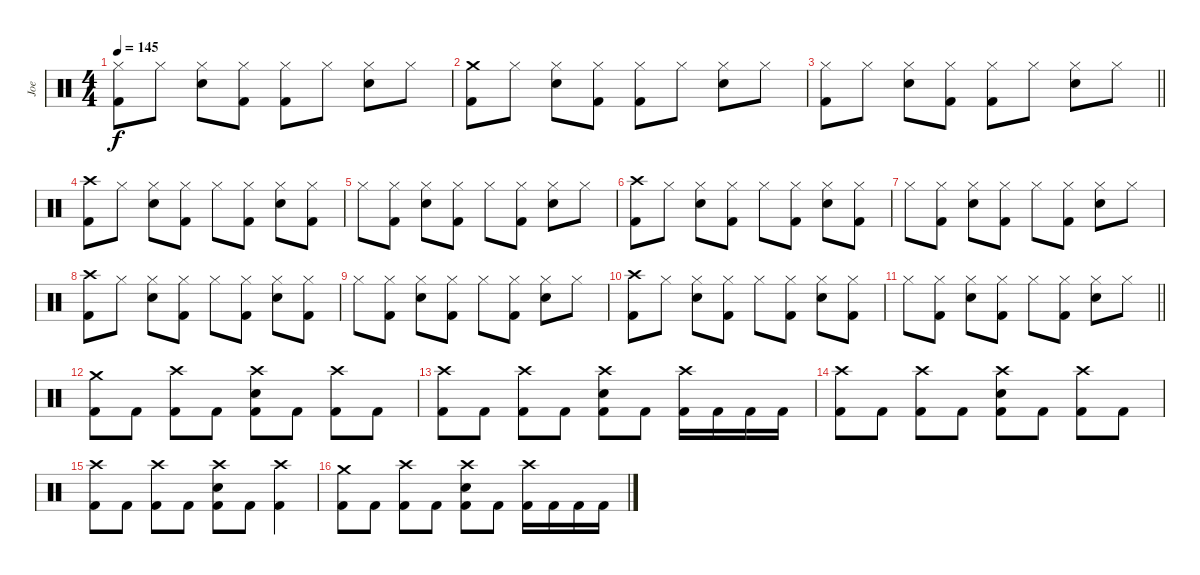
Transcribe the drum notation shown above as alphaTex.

\track ("Joe" "Joe") {instrument percussion}
\staff {score}
\articulation defaults
\ts (4 4)
\tempo 145
\clef neutral
\ks c
("Hi-Hat (closed)" "Kick (hit) 2").8{dy f} "Hi-Hat (closed)".8 ("Hi-Hat (closed)" "Snare (hit) 2").8 ("Hi-Hat (closed)" "Kick (hit) 2").8 ("Hi-Hat (closed)" "Kick (hit) 2").8 "Hi-Hat (closed)".8 ("Hi-Hat (closed)" "Snare (hit) 2").8 "Hi-Hat (closed)".8 |
("Crash medium (hit)" "Kick (hit) 2").8 "Hi-Hat (closed)".8 ("Hi-Hat (closed)" "Snare (hit) 2").8 ("Hi-Hat (closed)" "Kick (hit) 2").8 ("Hi-Hat (closed)" "Kick (hit) 2").8 "Hi-Hat (closed)".8 ("Hi-Hat (closed)" "Snare (hit) 2").8 "Hi-Hat (closed)".8 |
\barLineRight lightlight
("Hi-Hat (closed)" "Kick (hit) 2").8 "Hi-Hat (closed)".8 ("Hi-Hat (closed)" "Snare (hit) 2").8 ("Hi-Hat (closed)" "Kick (hit) 2").8 ("Hi-Hat (closed)" "Kick (hit) 2").8 "Hi-Hat (closed)".8 ("Hi-Hat (closed)" "Snare (hit) 2").8 "Hi-Hat (closed)".8 |
\section ("" "")
("Crash high (hit)" "Kick (hit) 2").8 "Hi-Hat (closed)".8 ("Hi-Hat (closed)" "Snare (hit) 2").8 ("Hi-Hat (closed)" "Kick (hit) 2").8 "Hi-Hat (closed)".8 ("Hi-Hat (closed)" "Kick (hit) 2").8 ("Hi-Hat (closed)" "Snare (hit) 2").8 ("Hi-Hat (closed)" "Kick (hit) 2").8 |
"Hi-Hat (closed)".8 ("Hi-Hat (closed)" "Kick (hit) 2").8 ("Hi-Hat (closed)" "Snare (hit) 2").8 ("Hi-Hat (closed)" "Kick (hit) 2").8 "Hi-Hat (closed)".8 ("Hi-Hat (closed)" "Kick (hit) 2").8 ("Hi-Hat (closed)" "Snare (hit) 2").8 "Hi-Hat (closed)".8 |
("Crash high (hit)" "Kick (hit) 2").8 "Hi-Hat (closed)".8 ("Hi-Hat (closed)" "Snare (hit) 2").8 ("Hi-Hat (closed)" "Kick (hit) 2").8 "Hi-Hat (closed)".8 ("Hi-Hat (closed)" "Kick (hit) 2").8 ("Hi-Hat (closed)" "Snare (hit) 2").8 ("Hi-Hat (closed)" "Kick (hit) 2").8 |
"Hi-Hat (closed)".8 ("Hi-Hat (closed)" "Kick (hit) 2").8 ("Hi-Hat (closed)" "Snare (hit) 2").8 ("Hi-Hat (closed)" "Kick (hit) 2").8 "Hi-Hat (closed)".8 ("Hi-Hat (closed)" "Kick (hit) 2").8 ("Hi-Hat (closed)" "Snare (hit) 2").8 "Hi-Hat (closed)".8 |
("Crash high (hit)" "Kick (hit) 2").8 "Hi-Hat (closed)".8 ("Hi-Hat (closed)" "Snare (hit) 2").8 ("Hi-Hat (closed)" "Kick (hit) 2").8 "Hi-Hat (closed)".8 ("Hi-Hat (closed)" "Kick (hit) 2").8 ("Hi-Hat (closed)" "Snare (hit) 2").8 ("Hi-Hat (closed)" "Kick (hit) 2").8 |
"Hi-Hat (closed)".8 ("Hi-Hat (closed)" "Kick (hit) 2").8 ("Hi-Hat (closed)" "Snare (hit) 2").8 ("Hi-Hat (closed)" "Kick (hit) 2").8 "Hi-Hat (closed)".8 ("Hi-Hat (closed)" "Kick (hit) 2").8 ("Hi-Hat (closed)" "Snare (hit) 2").8 "Hi-Hat (closed)".8 |
("Crash high (hit)" "Kick (hit) 2").8 "Hi-Hat (closed)".8 ("Hi-Hat (closed)" "Snare (hit) 2").8 ("Hi-Hat (closed)" "Kick (hit) 2").8 "Hi-Hat (closed)".8 ("Hi-Hat (closed)" "Kick (hit) 2").8 ("Hi-Hat (closed)" "Snare (hit) 2").8 ("Hi-Hat (closed)" "Kick (hit) 2").8 |
\barLineRight lightlight "Hi-Hat (closed)".8
("Hi-Hat (closed)" "Kick (hit) 2").8 ("Hi-Hat (closed)" "Snare (hit) 2").8 ("Hi-Hat (closed)" "Kick (hit) 2").8 "Hi-Hat (closed)".8 ("Hi-Hat (closed)" "Kick (hit) 2").8 ("Hi-Hat (closed)" "Snare (hit) 2").8 "Hi-Hat (closed)".8 |
\section ("" "")
("Crash medium (hit)" "Kick (hit) 2").8 "Kick (hit) 2".8 ("Crash high (hit)" "Kick (hit) 2").8 "Kick (hit) 2".8 ("Crash high (hit)" "Snare (hit) 2" "Kick (hit) 2").8 "Kick (hit) 2".8 ("Crash high (hit)" "Kick (hit) 2").8 "Kick (hit) 2".8 |
("Crash high (hit)" "Kick (hit) 2").8 "Kick (hit) 2".8 ("Crash high (hit)" "Kick (hit) 2").8 "Kick (hit) 2".8 ("Crash high (hit)" "Snare (hit) 2" "Kick (hit) 2").8 "Kick (hit) 2".8 ("Crash high (hit)" "Kick (hit) 2").16 "Kick (hit) 2".16 "Kick (hit) 2".16 "Kick (hit) 2".16 |
("Crash high (hit)" "Kick (hit) 2").8 "Kick (hit) 2".8 ("Crash high (hit)" "Kick (hit) 2").8 "Kick (hit) 2".8 ("Crash high (hit)" "Snare (hit) 2" "Kick (hit) 2").8 "Kick (hit) 2".8 ("Crash high (hit)" "Kick (hit) 2").8 "Kick (hit) 2".8 |
("Crash high (hit)" "Kick (hit) 2").8 "Kick (hit) 2".8 ("Crash high (hit)" "Kick (hit) 2").8 "Kick (hit) 2".8 ("Crash high (hit)" "Snare (hit) 2" "Kick (hit) 2").8 "Kick (hit) 2".8 ("Crash high (hit)" "Kick (hit) 2").4 |
("Crash medium (hit)" "Kick (hit) 2").8 "Kick (hit) 2".8 ("Crash high (hit)" "Kick (hit) 2").8 "Kick (hit) 2".8 ("Crash high (hit)" "Snare (hit) 2" "Kick (hit) 2").8 "Kick (hit) 2".8 ("Crash high (hit)" "Kick (hit) 2").16 "Kick (hit) 2".16 "Kick (hit) 2".16 "Kick (hit) 2".16
